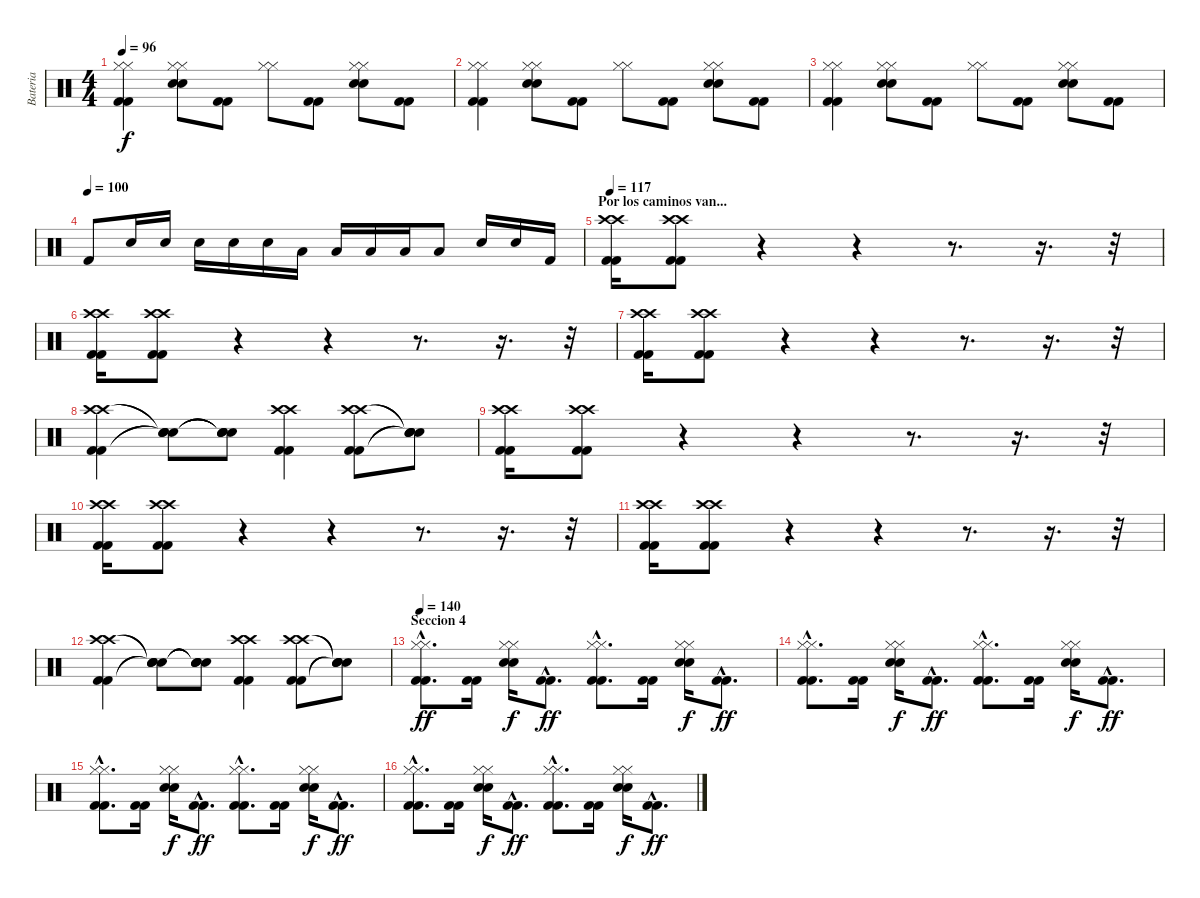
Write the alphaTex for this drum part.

\track ("Bateria" "Bateria") {instrument percussion}
\staff {score}
\articulation defaults
\ts (4 4)
\tempo 96
\clef neutral
\ks c
("Hi-Hat (closed)" "Hi-Hat (closed)" "Kick (hit) 2" "Kick (hit) 2").4{dy f} ("Hi-Hat (closed)" "Hi-Hat (closed)" "Snare (hit) 2" "Snare (hit) 2").8 ("Kick (hit) 2" "Kick (hit) 2").8 ("Hi-Hat (closed)" "Hi-Hat (closed)").8 ("Kick (hit) 2" "Kick (hit) 2").8 ("Hi-Hat (closed)" "Hi-Hat (closed)" "Snare (hit) 2" "Snare (hit) 2").8 ("Kick (hit) 2" "Kick (hit) 2").8 |
("Hi-Hat (closed)" "Hi-Hat (closed)" "Kick (hit) 2" "Kick (hit) 2").4 ("Hi-Hat (closed)" "Hi-Hat (closed)" "Snare (hit) 2" "Snare (hit) 2").8 ("Kick (hit) 2" "Kick (hit) 2").8 ("Hi-Hat (closed)" "Hi-Hat (closed)").8 ("Kick (hit) 2" "Kick (hit) 2").8 ("Hi-Hat (closed)" "Hi-Hat (closed)" "Snare (hit) 2" "Snare (hit) 2").8 ("Kick (hit) 2" "Kick (hit) 2").8 |
("Hi-Hat (closed)" "Hi-Hat (closed)" "Kick (hit) 2" "Kick (hit) 2").4 ("Hi-Hat (closed)" "Hi-Hat (closed)" "Snare (hit) 2" "Snare (hit) 2").8 ("Kick (hit) 2" "Kick (hit) 2").8 ("Hi-Hat (closed)" "Hi-Hat (closed)").8 ("Kick (hit) 2" "Kick (hit) 2").8 ("Hi-Hat (closed)" "Hi-Hat (closed)" "Snare (hit) 2" "Snare (hit) 2").8 ("Kick (hit) 2" "Kick (hit) 2").8 |
\tempo (100)
"Kick (hit) 2".8 "Snare (hit) 2".16 "Snare (hit) 2".16 "Snare (hit) 2".16 "Snare (hit) 2".16 "Snare (hit) 2".16 "Low Tom (hit)".16 "Low Tom (hit)".16 "Low Tom (hit)".16 "Low Tom (hit)".16 "Low Tom (hit)".8 "Snare (hit) 2".16 "Snare (hit) 2".16 "Kick (hit) 2".16 |
\section ("" "Por los caminos van...")
\tempo 117
("Crash high (hit)" "Crash high (hit)" "Kick (hit) 2" "Kick (hit) 2").16 ("Crash high (hit)" "Crash high (hit)" "Kick (hit) 2" "Kick (hit) 2").8 r.4 r.4 r.8{d} r.16{d} r.32 |
("Crash high (hit)" "Crash high (hit)" "Kick (hit) 2" "Kick (hit) 2").16 ("Crash high (hit)" "Crash high (hit)" "Kick (hit) 2" "Kick (hit) 2").8 r.4 r.4 r.8{d} r.16{d} r.32 |
("Crash high (hit)" "Crash high (hit)" "Kick (hit) 2" "Kick (hit) 2").16 ("Crash high (hit)" "Crash high (hit)" "Kick (hit) 2" "Kick (hit) 2").8 r.4 r.4 r.8{d} r.16{d} r.32 |
("Crash high (hit)" "Crash high (hit)" "Kick (hit) 2" "Kick (hit) 2").4 ("Snare (hit)"{t} "Snare (hit)"{t} "Snare (hit)"{t} "Snare (hit)"{t}).8 ("Snare (hit)"{t} "Snare (hit)"{t} "Snare (hit)"{t} "Snare (hit)"{t}).8 ("Crash high (hit)" "Crash high (hit)" "Kick (hit) 2" "Kick (hit) 2").4 ("Crash high (hit)" "Crash high (hit)" "Kick (hit) 2" "Kick (hit) 2").8 ("Snare (hit)"{t} "Snare (hit)"{t} "Snare (hit)"{t} "Snare (hit)"{t}).8 |
("Crash high (hit)" "Crash high (hit)" "Kick (hit) 2" "Kick (hit) 2").16 ("Crash high (hit)" "Crash high (hit)" "Kick (hit) 2" "Kick (hit) 2").8 r.4 r.4 r.8{d} r.16{d} r.32 |
("Crash high (hit)" "Crash high (hit)" "Kick (hit) 2" "Kick (hit) 2").16 ("Crash high (hit)" "Crash high (hit)" "Kick (hit) 2" "Kick (hit) 2").8 r.4 r.4 r.8{d} r.16{d} r.32 |
("Crash high (hit)" "Crash high (hit)" "Kick (hit) 2" "Kick (hit) 2").16 ("Crash high (hit)" "Crash high (hit)" "Kick (hit) 2" "Kick (hit) 2").8 r.4 r.4 r.8{d} r.16{d} r.32 |
("Crash high (hit)" "Crash high (hit)" "Kick (hit) 2" "Kick (hit) 2").4 ("Snare (hit)"{t} "Snare (hit)"{t} "Snare (hit)"{t} "Snare (hit)"{t}).8 ("Snare (hit)"{t} "Snare (hit)"{t} "Snare (hit)"{t} "Snare (hit)"{t}).8 ("Crash high (hit)" "Crash high (hit)" "Kick (hit) 2" "Kick (hit) 2").4 ("Crash high (hit)" "Crash high (hit)" "Kick (hit) 2" "Kick (hit) 2").8 ("Snare (hit)"{t} "Snare (hit)"{t} "Snare (hit)"{t} "Snare (hit)"{t}).8 |
\section ("" "Seccion 4")
\tempo 140
("Hi-Hat (closed)"{hac} "Hi-Hat (closed)"{hac} "Kick (hit) 2"{hac} "Kick (hit) 2"{hac}).8{d dy ff} ("Kick (hit) 2" "Kick (hit) 2").16 ("Hi-Hat (closed)" "Hi-Hat (closed)" "Snare (hit) 2" "Snare (hit) 2").16{dy f} ("Kick (hit) 2"{hac} "Kick (hit) 2"{hac}).8{d dy ff} ("Hi-Hat (closed)"{hac} "Hi-Hat (closed)"{hac} "Kick (hit) 2"{hac} "Kick (hit) 2"{hac}).8{d} ("Kick (hit) 2" "Kick (hit) 2").16 ("Hi-Hat (closed)" "Hi-Hat (closed)" "Snare (hit) 2" "Snare (hit) 2").16{dy f} ("Kick (hit) 2"{hac} "Kick (hit) 2"{hac}).8{d dy ff} |
("Hi-Hat (closed)"{hac} "Hi-Hat (closed)"{hac} "Kick (hit) 2"{hac} "Kick (hit) 2"{hac}).8{d} ("Kick (hit) 2" "Kick (hit) 2").16 ("Hi-Hat (closed)" "Hi-Hat (closed)" "Snare (hit) 2" "Snare (hit) 2").16{dy f} ("Kick (hit) 2"{hac} "Kick (hit) 2"{hac}).8{d dy ff} ("Hi-Hat (closed)"{hac} "Hi-Hat (closed)"{hac} "Kick (hit) 2"{hac} "Kick (hit) 2"{hac}).8{d} ("Kick (hit) 2" "Kick (hit) 2").16 ("Hi-Hat (closed)" "Hi-Hat (closed)" "Snare (hit) 2" "Snare (hit) 2").16{dy f} ("Kick (hit) 2"{hac} "Kick (hit) 2"{hac}).8{d dy ff} |
("Hi-Hat (closed)"{hac} "Hi-Hat (closed)"{hac} "Kick (hit) 2"{hac} "Kick (hit) 2"{hac}).8{d} ("Kick (hit) 2" "Kick (hit) 2").16 ("Hi-Hat (closed)" "Hi-Hat (closed)" "Snare (hit) 2" "Snare (hit) 2").16{dy f} ("Kick (hit) 2"{hac} "Kick (hit) 2"{hac}).8{d dy ff} ("Hi-Hat (closed)"{hac} "Hi-Hat (closed)"{hac} "Kick (hit) 2"{hac} "Kick (hit) 2"{hac}).8{d} ("Kick (hit) 2" "Kick (hit) 2").16 ("Hi-Hat (closed)" "Hi-Hat (closed)" "Snare (hit) 2" "Snare (hit) 2").16{dy f} ("Kick (hit) 2"{hac} "Kick (hit) 2"{hac}).8{d dy ff} |
("Hi-Hat (closed)"{hac} "Hi-Hat (closed)"{hac} "Kick (hit) 2"{hac} "Kick (hit) 2"{hac}).8{d} ("Kick (hit) 2" "Kick (hit) 2").16 ("Hi-Hat (closed)" "Hi-Hat (closed)" "Snare (hit) 2" "Snare (hit) 2").16{dy f} ("Kick (hit) 2"{hac} "Kick (hit) 2"{hac}).8{d dy ff} ("Hi-Hat (closed)"{hac} "Hi-Hat (closed)"{hac} "Kick (hit) 2"{hac} "Kick (hit) 2"{hac}).8{d} ("Kick (hit) 2" "Kick (hit) 2").16 ("Hi-Hat (closed)" "Hi-Hat (closed)" "Snare (hit) 2" "Snare (hit) 2").16{dy f} ("Kick (hit) 2"{hac} "Kick (hit) 2"{hac}).8{d dy ff}
